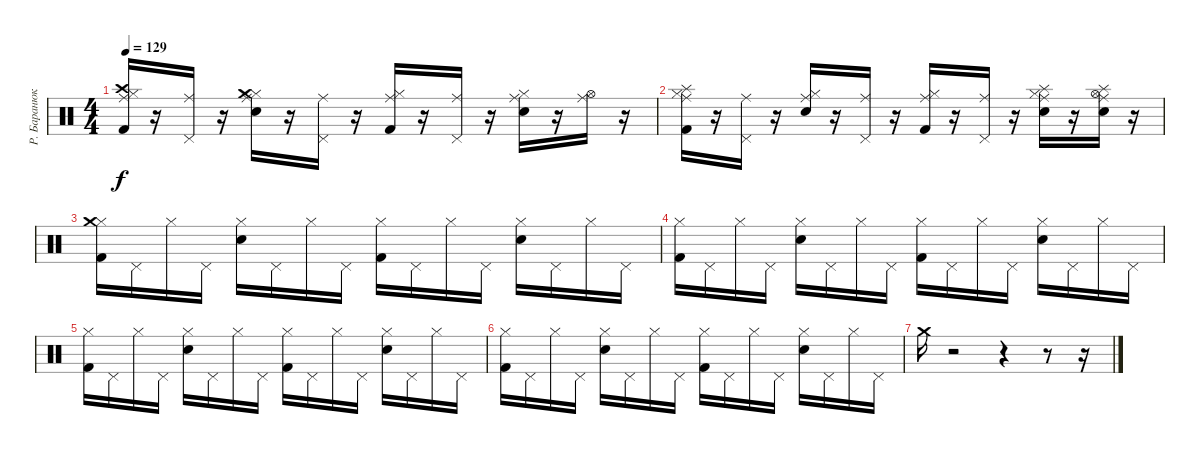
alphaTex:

\track ("Р. Баранюк" "Р. Баранюк") {instrument percussion}
\staff {score}
\articulation defaults
\ts (4 4)
\tempo 129
\clef neutral
\ks c
("Ride (middle)" "Crash high (hit)" "Hi-Hat (closed)" "Kick (hit) 2").16{dy f} r.16 ("Pedal Hi-Hat (hit)" "Ride (middle)").16 r.16 ("Electric Snare (hit)" "Hi-Hat (closed)" "Crash medium (hit)" "Ride (middle)").16 r.16 ("Ride (middle)" "Pedal Hi-Hat (hit)").16 r.16 ("Ride (middle)" "Hi-Hat (closed)" "Kick (hit) 2").16 r.16 ("Ride (middle)" "Pedal Hi-Hat (hit)").16 r.16 ("Ride (middle)" "Electric Snare (hit)" "Hi-Hat (closed)").16 r.16 ("Ride (middle)" "Hi-Hat (open)").16 r.16 |
("Kick (hit) 2" "Hi-Hat (closed)" "Splash (hit)" "Ride (middle)").16 r.16 ("Ride (middle)" "Pedal Hi-Hat (hit)").16 r.16 ("Electric Snare (hit)" "Hi-Hat (closed)" "Ride (middle)").16 r.16 ("Ride (middle)" "Pedal Hi-Hat (hit)").16 r.16 ("Ride (middle)" "Hi-Hat (closed)" "Kick (hit) 2").16 r.16 ("Pedal Hi-Hat (hit)" "Ride (middle)").16 r.16 ("Ride (middle)" "Splash (hit)" "Electric Snare (hit)" "Hi-Hat (closed)").16 r.16 ("Ride (middle)" "Splash (hit)" "Electric Snare (hit)" "Hi-Hat (open)").16 r.16 |
("Hi-Hat (closed)" "Kick (hit) 2" "Crash medium (hit)").16 "Pedal Hi-Hat (hit)".16 "Hi-Hat (closed)".16 "Pedal Hi-Hat (hit)".16 ("Hi-Hat (closed)" "Electric Snare (hit)").16 "Pedal Hi-Hat (hit)".16 "Hi-Hat (closed)".16 "Pedal Hi-Hat (hit)".16 ("Hi-Hat (closed)" "Kick (hit) 2").16 "Pedal Hi-Hat (hit)".16 "Hi-Hat (closed)".16 "Pedal Hi-Hat (hit)".16 ("Hi-Hat (closed)" "Electric Snare (hit)").16 "Pedal Hi-Hat (hit)".16 "Hi-Hat (closed)".16 "Pedal Hi-Hat (hit)".16 |
("Hi-Hat (closed)" "Kick (hit) 2").16 "Pedal Hi-Hat (hit)".16 "Hi-Hat (closed)".16 "Pedal Hi-Hat (hit)".16 ("Electric Snare (hit)" "Hi-Hat (closed)").16 "Pedal Hi-Hat (hit)".16 "Hi-Hat (closed)".16 "Pedal Hi-Hat (hit)".16 ("Hi-Hat (closed)" "Kick (hit) 2").16 "Pedal Hi-Hat (hit)".16 "Hi-Hat (closed)".16 "Pedal Hi-Hat (hit)".16 ("Electric Snare (hit)" "Hi-Hat (closed)").16 "Pedal Hi-Hat (hit)".16 "Hi-Hat (closed)".16 "Pedal Hi-Hat (hit)".16 |
("Hi-Hat (closed)" "Kick (hit) 2").16 "Pedal Hi-Hat (hit)".16 "Hi-Hat (closed)".16 "Pedal Hi-Hat (hit)".16 ("Electric Snare (hit)" "Hi-Hat (closed)").16 "Pedal Hi-Hat (hit)".16 "Hi-Hat (closed)".16 "Pedal Hi-Hat (hit)".16 ("Hi-Hat (closed)" "Kick (hit) 2").16 "Pedal Hi-Hat (hit)".16 "Hi-Hat (closed)".16 "Pedal Hi-Hat (hit)".16 ("Electric Snare (hit)" "Hi-Hat (closed)").16 "Pedal Hi-Hat (hit)".16 "Hi-Hat (closed)".16 "Pedal Hi-Hat (hit)".16 |
("Hi-Hat (closed)" "Kick (hit) 2").16 "Pedal Hi-Hat (hit)".16 "Hi-Hat (closed)".16 "Pedal Hi-Hat (hit)".16 ("Electric Snare (hit)" "Hi-Hat (closed)").16 "Pedal Hi-Hat (hit)".16 "Hi-Hat (closed)".16 "Pedal Hi-Hat (hit)".16 ("Hi-Hat (closed)" "Kick (hit) 2").16 "Pedal Hi-Hat (hit)".16 "Hi-Hat (closed)".16 "Pedal Hi-Hat (hit)".16 ("Electric Snare (hit)" "Hi-Hat (closed)").16 "Pedal Hi-Hat (hit)".16 "Hi-Hat (closed)".16 "Pedal Hi-Hat (hit)".16 |
"Crash medium (hit)".16 r.2 r.4 r.8 r.16
